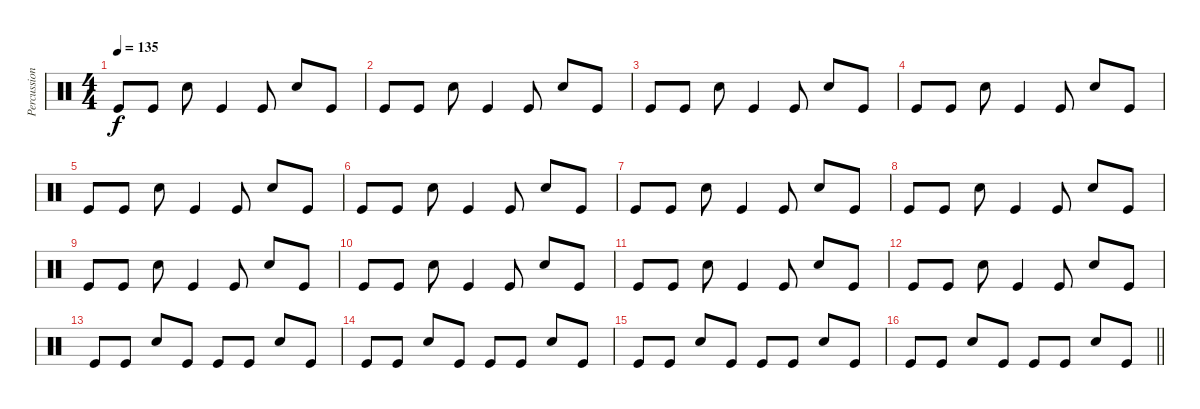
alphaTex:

\track ("Percussion" "Percussion") {instrument percussion}
\staff {score}
\articulation defaults
\ts (4 4)
\tempo 135
\clef neutral
\ks c "Kick (hit)".8{dy f} "Kick (hit)".8 "Snare (hit) 2".8 "Kick (hit)".4 "Kick (hit)".8 "Snare (hit) 2".8 "Kick (hit)".8
|
"Kick (hit)".8 "Kick (hit)".8 "Snare (hit) 2".8 "Kick (hit)".4 "Kick (hit)".8 "Snare (hit) 2".8 "Kick (hit)".8 |
"Kick (hit)".8 "Kick (hit)".8 "Snare (hit) 2".8 "Kick (hit)".4 "Kick (hit)".8 "Snare (hit) 2".8 "Kick (hit)".8 |
"Kick (hit)".8 "Kick (hit)".8 "Snare (hit) 2".8 "Kick (hit)".4 "Kick (hit)".8 "Snare (hit) 2".8 "Kick (hit)".8 |
"Kick (hit)".8 "Kick (hit)".8 "Snare (hit) 2".8 "Kick (hit)".4 "Kick (hit)".8 "Snare (hit) 2".8 "Kick (hit)".8 |
"Kick (hit)".8 "Kick (hit)".8 "Snare (hit) 2".8 "Kick (hit)".4 "Kick (hit)".8 "Snare (hit) 2".8 "Kick (hit)".8 |
"Kick (hit)".8 "Kick (hit)".8 "Snare (hit) 2".8 "Kick (hit)".4 "Kick (hit)".8 "Snare (hit) 2".8 "Kick (hit)".8 |
"Kick (hit)".8 "Kick (hit)".8 "Snare (hit) 2".8 "Kick (hit)".4 "Kick (hit)".8 "Snare (hit) 2".8 "Kick (hit)".8 |
"Kick (hit)".8 "Kick (hit)".8 "Snare (hit) 2".8 "Kick (hit)".4 "Kick (hit)".8 "Snare (hit) 2".8 "Kick (hit)".8 |
"Kick (hit)".8 "Kick (hit)".8 "Snare (hit) 2".8 "Kick (hit)".4 "Kick (hit)".8 "Snare (hit) 2".8 "Kick (hit)".8 |
"Kick (hit)".8 "Kick (hit)".8 "Snare (hit) 2".8 "Kick (hit)".4 "Kick (hit)".8 "Snare (hit) 2".8 "Kick (hit)".8 |
"Kick (hit)".8 "Kick (hit)".8 "Snare (hit) 2".8 "Kick (hit)".4 "Kick (hit)".8 "Snare (hit) 2".8 "Kick (hit)".8 |
"Kick (hit)".8 "Kick (hit)".8 "Snare (hit) 2".8 "Kick (hit)".8 "Kick (hit)".8 "Kick (hit)".8 "Snare (hit) 2".8 "Kick (hit)".8 |
"Kick (hit)".8 "Kick (hit)".8 "Snare (hit) 2".8 "Kick (hit)".8 "Kick (hit)".8 "Kick (hit)".8 "Snare (hit) 2".8 "Kick (hit)".8 |
"Kick (hit)".8 "Kick (hit)".8 "Snare (hit) 2".8 "Kick (hit)".8 "Kick (hit)".8 "Kick (hit)".8 "Snare (hit) 2".8 "Kick (hit)".8 |
\barLineRight lightlight "Kick (hit)".8 "Kick (hit)".8 "Snare (hit) 2".8 "Kick (hit)".8 "Kick (hit)".8 "Kick (hit)".8 "Snare (hit) 2".8 "Kick (hit)".8
